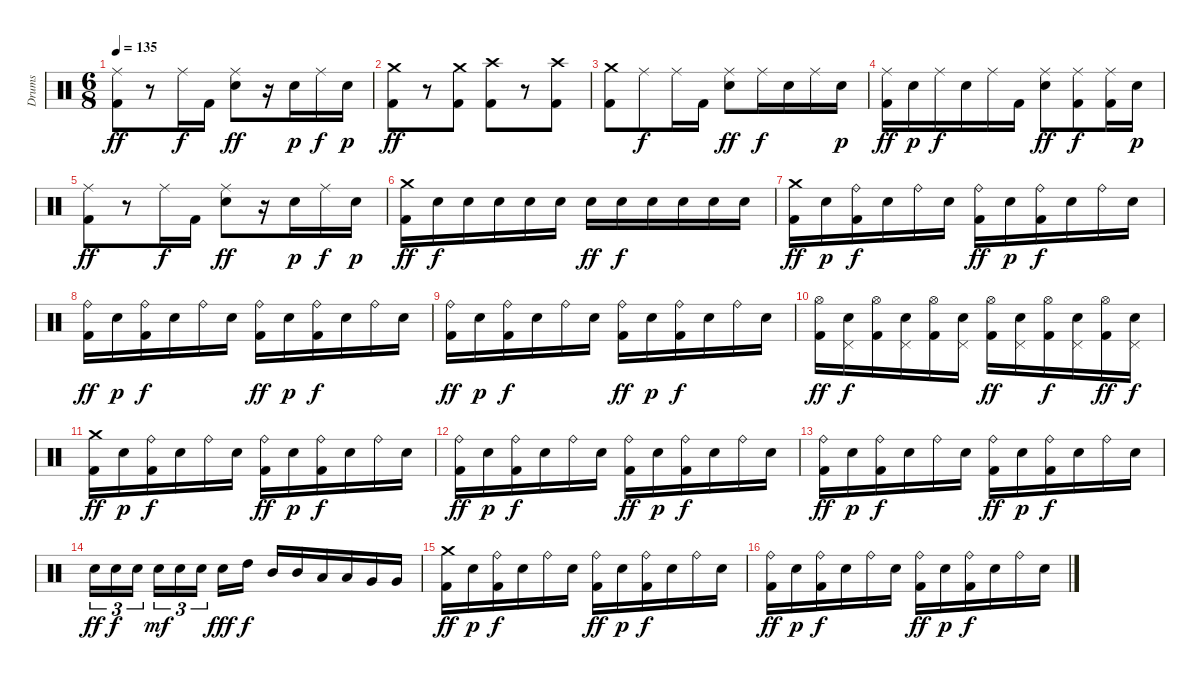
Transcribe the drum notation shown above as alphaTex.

\track ("Drums" "Drums") {instrument percussion}
\staff {score}
\articulation defaults
\ts (6 8)
\tempo 135
\clef neutral
\ks c
("Kick (hit) 2" "Ride (middle)").8{dy ff} r.8 "Ride (middle)".16{dy f} "Kick (hit) 2".16 ("Electric Snare (hit)" "Ride (middle)").8{dy ff} r.16 "Electric Snare (hit)".16{dy p} "Ride (middle)".16{dy f} "Electric Snare (hit)".16{dy p} |
("Kick (hit) 2" "Crash medium (hit)").8{dy ff} r.8 ("Kick (hit) 2" "Crash medium (hit)").8 ("Kick (hit) 2" "Crash high (hit)").8 r.8 ("Kick (hit) 2" "Crash high (hit)").8 |
("Kick (hit) 2" "Crash medium (hit)").8 "Ride (middle)".8{dy f} "Ride (middle)".16 "Kick (hit) 2".16 ("Electric Snare (hit)" "Ride (middle)").8{dy ff} "Ride (middle)".16{dy f} "Electric Snare (hit)".16 "Ride (middle)".16 "Electric Snare (hit)".16{dy p} |
("Kick (hit) 2" "Ride (middle)").16{dy ff} "Electric Snare (hit)".16{dy p} "Ride (middle)".16{dy f} "Electric Snare (hit)".16 "Ride (middle)".16 "Kick (hit) 2".16 ("Electric Snare (hit)" "Ride (middle)").8{dy ff} ("Kick (hit) 2" "Ride (middle)").8{dy f} ("Kick (hit) 2" "Ride (middle)").16 "Electric Snare (hit)".16{dy p} |
("Kick (hit) 2" "Ride (middle)").8{dy ff} r.8 "Ride (middle)".16{dy f} "Kick (hit) 2".16 ("Electric Snare (hit)" "Ride (middle)").8{dy ff} r.16 "Electric Snare (hit)".16{dy p} "Ride (middle)".16{dy f} "Electric Snare (hit)".16{dy p} |
("Kick (hit) 2" "Crash medium (hit)").16{dy ff} "Electric Snare (hit)".16{dy f} "Electric Snare (hit)".16 "Electric Snare (hit)".16 "Electric Snare (hit)".16 "Electric Snare (hit)".16 "Electric Snare (hit)".16{dy ff} "Electric Snare (hit)".16{dy f} "Electric Snare (hit)".16 "Electric Snare (hit)".16 "Electric Snare (hit)".16 "Electric Snare (hit)".16 |
("Kick (hit) 2" "Crash medium (hit)").16{dy ff} "Electric Snare (hit)".16{dy p} ("Kick (hit) 2" "Ride (bell)").16{dy f} "Electric Snare (hit)".16 "Ride (bell)".16 "Electric Snare (hit)".16 ("Kick (hit) 2" "Ride (bell)").16{dy ff} "Electric Snare (hit)".16{dy p} ("Kick (hit) 2" "Ride (bell)").16{dy f} "Electric Snare (hit)".16 "Ride (bell)".16 "Electric Snare (hit)".16 |
("Kick (hit) 2" "Ride (bell)").16{dy ff} "Electric Snare (hit)".16{dy p} ("Kick (hit) 2" "Ride (bell)").16{dy f} "Electric Snare (hit)".16 "Ride (bell)".16 "Electric Snare (hit)".16 ("Kick (hit) 2" "Ride (bell)").16{dy ff} "Electric Snare (hit)".16{dy p} ("Kick (hit) 2" "Ride (bell)").16{dy f} "Electric Snare (hit)".16 "Ride (bell)".16 "Electric Snare (hit)".16 |
("Kick (hit) 2" "Ride (bell)").16{dy ff} "Electric Snare (hit)".16{dy p} ("Kick (hit) 2" "Ride (bell)").16{dy f} "Electric Snare (hit)".16 "Ride (bell)".16 "Electric Snare (hit)".16 ("Kick (hit) 2" "Ride (bell)").16{dy ff} "Electric Snare (hit)".16{dy p} ("Kick (hit) 2" "Ride (bell)").16{dy f} "Electric Snare (hit)".16 "Ride (bell)".16 "Electric Snare (hit)".16 |
("Kick (hit) 2" "Hi-Hat (open)").16{dy ff} ("Electric Snare (hit)" "Pedal Hi-Hat (hit)").16{dy f} ("Kick (hit) 2" "Hi-Hat (open)").16 ("Electric Snare (hit)" "Pedal Hi-Hat (hit)").16 ("Kick (hit) 2" "Hi-Hat (open)").16 ("Electric Snare (hit)" "Pedal Hi-Hat (hit)").16 ("Kick (hit) 2" "Hi-Hat (open)").16{dy ff} ("Electric Snare (hit)" "Pedal Hi-Hat (hit)").16 ("Kick (hit) 2" "Hi-Hat (open)").16{dy f} ("Electric Snare (hit)" "Pedal Hi-Hat (hit)").16 ("Kick (hit) 2" "Hi-Hat (open)").16{dy ff} ("Electric Snare (hit)" "Pedal Hi-Hat (hit)").16{dy f} |
("Kick (hit) 2" "Crash medium (hit)").16{dy ff} "Electric Snare (hit)".16{dy p} ("Kick (hit) 2" "Ride (bell)").16{dy f} "Electric Snare (hit)".16 "Ride (bell)".16 "Electric Snare (hit)".16 ("Kick (hit) 2" "Ride (bell)").16{dy ff} "Electric Snare (hit)".16{dy p} ("Kick (hit) 2" "Ride (bell)").16{dy f} "Electric Snare (hit)".16 "Ride (bell)".16 "Electric Snare (hit)".16 |
("Kick (hit) 2" "Ride (bell)").16{dy ff} "Electric Snare (hit)".16{dy p} ("Kick (hit) 2" "Ride (bell)").16{dy f} "Electric Snare (hit)".16 "Ride (bell)".16 "Electric Snare (hit)".16 ("Kick (hit) 2" "Ride (bell)").16{dy ff} "Electric Snare (hit)".16{dy p} ("Kick (hit) 2" "Ride (bell)").16{dy f} "Electric Snare (hit)".16 "Ride (bell)".16 "Electric Snare (hit)".16 |
("Kick (hit) 2" "Ride (bell)").16{dy ff} "Electric Snare (hit)".16{dy p} ("Kick (hit) 2" "Ride (bell)").16{dy f} "Electric Snare (hit)".16 "Ride (bell)".16 "Electric Snare (hit)".16 ("Kick (hit) 2" "Ride (bell)").16{dy ff} "Electric Snare (hit)".16{dy p} ("Kick (hit) 2" "Ride (bell)").16{dy f} "Electric Snare (hit)".16 "Ride (bell)".16 "Electric Snare (hit)".16 |
"Electric Snare (hit)".16{tu (3 2) dy ff} "Electric Snare (hit)".16{tu (3 2) dy f} "Electric Snare (hit)".16{tu (3 2)} "Electric Snare (hit)".16{tu (3 2) dy mf} "Electric Snare (hit)".16{tu (3 2)} "Electric Snare (hit)".16{tu (3 2)} "Electric Snare (hit)".16{dy fff} "High Tom (hit)".16{dy f} "Mid Tom (hit)".16 "Mid Tom (hit)".16 "Low Tom (hit)".16 "Low Tom (hit)".16 "Very Low Tom (hit)".16 "Very Low Tom (hit)".16 |
("Kick (hit) 2" "Crash medium (hit)").16{dy ff} "Electric Snare (hit)".16{dy p} ("Kick (hit) 2" "Ride (bell)").16{dy f} "Electric Snare (hit)".16 "Ride (bell)".16 "Electric Snare (hit)".16 ("Kick (hit) 2" "Ride (bell)").16{dy ff} "Electric Snare (hit)".16{dy p} ("Kick (hit) 2" "Ride (bell)").16{dy f} "Electric Snare (hit)".16 "Ride (bell)".16 "Electric Snare (hit)".16 |
("Kick (hit) 2" "Ride (bell)").16{dy ff} "Electric Snare (hit)".16{dy p} ("Kick (hit) 2" "Ride (bell)").16{dy f} "Electric Snare (hit)".16 "Ride (bell)".16 "Electric Snare (hit)".16 ("Kick (hit) 2" "Ride (bell)").16{dy ff} "Electric Snare (hit)".16{dy p} ("Kick (hit) 2" "Ride (bell)").16{dy f} "Electric Snare (hit)".16 "Ride (bell)".16 "Electric Snare (hit)".16
